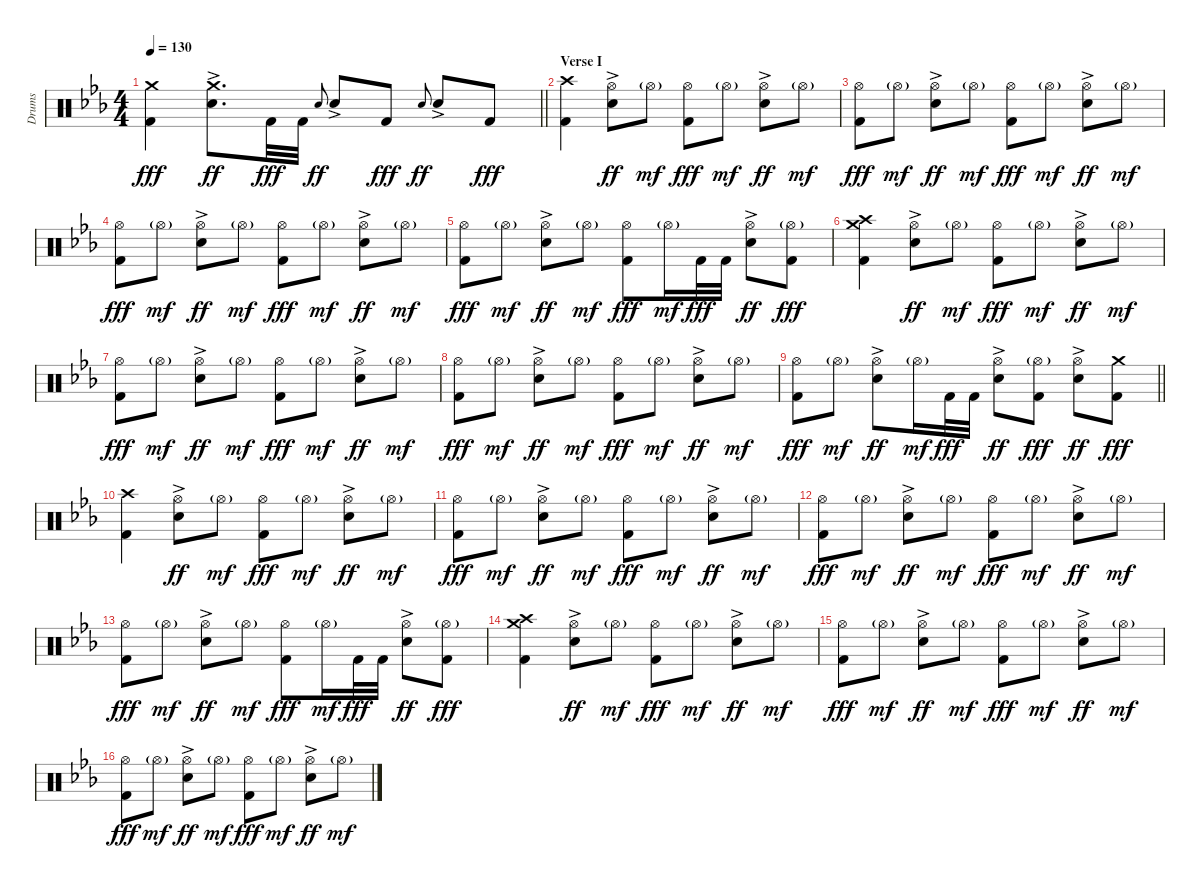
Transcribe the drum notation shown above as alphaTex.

\track ("Drums" "Drums") {instrument percussion}
\staff {score}
\articulation defaults
\ts (4 4)
\tempo 130
\clef neutral
\barLineRight lightlight
\ks cminor
("Crash medium (hit)" "Kick (hit) 2").4{dy fff} ("Crash medium (hit)" "Electric Snare (hit)"{ac}).8{d dy ff} "Kick (hit) 2".32{dy fff} "Kick (hit) 2".32 "Electric Snare (hit)".8{gr onbeat dy ff} "Electric Snare (hit)"{ac}.8 "Kick (hit) 2".8{dy fff} "Electric Snare (hit)".8{gr onbeat dy ff} "Electric Snare (hit)"{ac}.8 "Kick (hit) 2".8{dy fff} |
\section ("" "Verse I")
("Crash high (hit)" "Kick (hit) 2").4 ("Hi-Hat (open)" "Electric Snare (hit)"{ac}).8{dy ff} "Hi-Hat (open)"{g}.8{dy mf} ("Hi-Hat (open)" "Kick (hit) 2").8{dy fff} "Hi-Hat (open)"{g}.8{dy mf} ("Hi-Hat (open)" "Electric Snare (hit)"{ac}).8{dy ff} "Hi-Hat (open)"{g}.8{dy mf} |
("Hi-Hat (open)" "Kick (hit) 2").8{dy fff} "Hi-Hat (open)"{g}.8{dy mf} ("Hi-Hat (open)" "Electric Snare (hit)"{ac}).8{dy ff} "Hi-Hat (open)"{g}.8{dy mf} ("Hi-Hat (open)" "Kick (hit) 2").8{dy fff} "Hi-Hat (open)"{g}.8{dy mf} ("Hi-Hat (open)" "Electric Snare (hit)"{ac}).8{dy ff} "Hi-Hat (open)"{g}.8{dy mf} |
("Hi-Hat (open)" "Kick (hit) 2").8{dy fff} "Hi-Hat (open)"{g}.8{dy mf} ("Hi-Hat (open)" "Electric Snare (hit)"{ac}).8{dy ff} "Hi-Hat (open)"{g}.8{dy mf} ("Hi-Hat (open)" "Kick (hit) 2").8{dy fff} "Hi-Hat (open)"{g}.8{dy mf} ("Hi-Hat (open)" "Electric Snare (hit)"{ac}).8{dy ff} "Hi-Hat (open)"{g}.8{dy mf} |
("Hi-Hat (open)" "Kick (hit) 2").8{dy fff} "Hi-Hat (open)"{g}.8{dy mf} ("Hi-Hat (open)" "Electric Snare (hit)"{ac}).8{dy ff} "Hi-Hat (open)"{g}.8{dy mf} ("Hi-Hat (open)" "Kick (hit) 2").8{dy fff} "Hi-Hat (open)"{g}.16{dy mf} "Kick (hit) 2".32{dy fff} "Kick (hit) 2".32 ("Hi-Hat (open)" "Electric Snare (hit)"{ac}).8{dy ff} ("Hi-Hat (open)"{g} "Kick (hit) 2").8{dy fff} |
("Crash high (hit)" "Crash medium (hit)" "Kick (hit) 2").4 ("Hi-Hat (open)" "Electric Snare (hit)"{ac}).8{dy ff} "Hi-Hat (open)"{g}.8{dy mf} ("Hi-Hat (open)" "Kick (hit) 2").8{dy fff} "Hi-Hat (open)"{g}.8{dy mf} ("Hi-Hat (open)" "Electric Snare (hit)"{ac}).8{dy ff} "Hi-Hat (open)"{g}.8{dy mf} |
("Hi-Hat (open)" "Kick (hit) 2").8{dy fff} "Hi-Hat (open)"{g}.8{dy mf} ("Hi-Hat (open)" "Electric Snare (hit)"{ac}).8{dy ff} "Hi-Hat (open)"{g}.8{dy mf} ("Hi-Hat (open)" "Kick (hit) 2").8{dy fff} "Hi-Hat (open)"{g}.8{dy mf} ("Hi-Hat (open)" "Electric Snare (hit)"{ac}).8{dy ff} "Hi-Hat (open)"{g}.8{dy mf} |
("Hi-Hat (open)" "Kick (hit) 2").8{dy fff} "Hi-Hat (open)"{g}.8{dy mf} ("Hi-Hat (open)" "Electric Snare (hit)"{ac}).8{dy ff} "Hi-Hat (open)"{g}.8{dy mf} ("Hi-Hat (open)" "Kick (hit) 2").8{dy fff} "Hi-Hat (open)"{g}.8{dy mf} ("Hi-Hat (open)" "Electric Snare (hit)"{ac}).8{dy ff} "Hi-Hat (open)"{g}.8{dy mf} |
\barLineRight lightlight
("Hi-Hat (open)" "Kick (hit) 2").8{dy fff} "Hi-Hat (open)"{g}.8{dy mf} ("Hi-Hat (open)" "Electric Snare (hit)"{ac}).8{dy ff} "Hi-Hat (open)"{g}.16{dy mf} "Kick (hit) 2".32{dy fff} "Kick (hit) 2".32 ("Hi-Hat (open)" "Electric Snare (hit)"{ac}).8{dy ff} ("Hi-Hat (open)"{g} "Kick (hit) 2").8{dy fff} ("Hi-Hat (open)" "Electric Snare (hit)"{ac}).8{dy ff} ("Crash medium (hit)" "Kick (hit) 2").8{dy fff} |
("Crash high (hit)" "Kick (hit) 2").4 ("Hi-Hat (open)" "Electric Snare (hit)"{ac}).8{dy ff} "Hi-Hat (open)"{g}.8{dy mf} ("Hi-Hat (open)" "Kick (hit) 2").8{dy fff} "Hi-Hat (open)"{g}.8{dy mf} ("Hi-Hat (open)" "Electric Snare (hit)"{ac}).8{dy ff} "Hi-Hat (open)"{g}.8{dy mf} |
("Hi-Hat (open)" "Kick (hit) 2").8{dy fff} "Hi-Hat (open)"{g}.8{dy mf} ("Hi-Hat (open)" "Electric Snare (hit)"{ac}).8{dy ff} "Hi-Hat (open)"{g}.8{dy mf} ("Hi-Hat (open)" "Kick (hit) 2").8{dy fff} "Hi-Hat (open)"{g}.8{dy mf} ("Hi-Hat (open)" "Electric Snare (hit)"{ac}).8{dy ff} "Hi-Hat (open)"{g}.8{dy mf} |
("Hi-Hat (open)" "Kick (hit) 2").8{dy fff} "Hi-Hat (open)"{g}.8{dy mf} ("Hi-Hat (open)" "Electric Snare (hit)"{ac}).8{dy ff} "Hi-Hat (open)"{g}.8{dy mf} ("Hi-Hat (open)" "Kick (hit) 2").8{dy fff} "Hi-Hat (open)"{g}.8{dy mf} ("Hi-Hat (open)" "Electric Snare (hit)"{ac}).8{dy ff} "Hi-Hat (open)"{g}.8{dy mf} |
("Hi-Hat (open)" "Kick (hit) 2").8{dy fff} "Hi-Hat (open)"{g}.8{dy mf} ("Hi-Hat (open)" "Electric Snare (hit)"{ac}).8{dy ff} "Hi-Hat (open)"{g}.8{dy mf} ("Hi-Hat (open)" "Kick (hit) 2").8{dy fff} "Hi-Hat (open)"{g}.16{dy mf} "Kick (hit) 2".32{dy fff} "Kick (hit) 2".32 ("Hi-Hat (open)" "Electric Snare (hit)"{ac}).8{dy ff} ("Hi-Hat (open)"{g} "Kick (hit) 2").8{dy fff} |
("Crash high (hit)" "Crash medium (hit)" "Kick (hit) 2").4 ("Hi-Hat (open)" "Electric Snare (hit)"{ac}).8{dy ff} "Hi-Hat (open)"{g}.8{dy mf} ("Hi-Hat (open)" "Kick (hit) 2").8{dy fff} "Hi-Hat (open)"{g}.8{dy mf} ("Hi-Hat (open)" "Electric Snare (hit)"{ac}).8{dy ff} "Hi-Hat (open)"{g}.8{dy mf} |
("Hi-Hat (open)" "Kick (hit) 2").8{dy fff} "Hi-Hat (open)"{g}.8{dy mf} ("Hi-Hat (open)" "Electric Snare (hit)"{ac}).8{dy ff} "Hi-Hat (open)"{g}.8{dy mf} ("Hi-Hat (open)" "Kick (hit) 2").8{dy fff} "Hi-Hat (open)"{g}.8{dy mf} ("Hi-Hat (open)" "Electric Snare (hit)"{ac}).8{dy ff} "Hi-Hat (open)"{g}.8{dy mf} |
("Hi-Hat (open)" "Kick (hit) 2").8{dy fff} "Hi-Hat (open)"{g}.8{dy mf} ("Hi-Hat (open)" "Electric Snare (hit)"{ac}).8{dy ff} "Hi-Hat (open)"{g}.8{dy mf} ("Hi-Hat (open)" "Kick (hit) 2").8{dy fff} "Hi-Hat (open)"{g}.8{dy mf} ("Hi-Hat (open)" "Electric Snare (hit)"{ac}).8{dy ff} "Hi-Hat (open)"{g}.8{dy mf}
